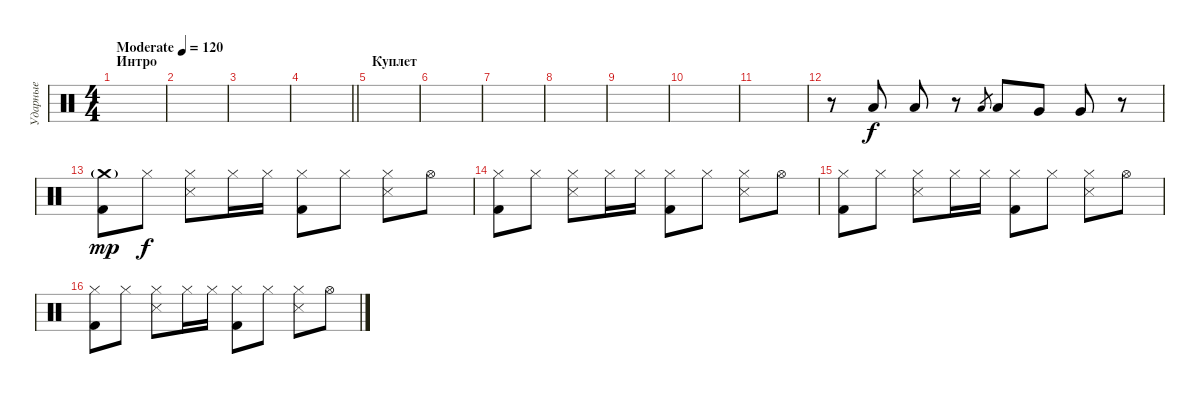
\track ("Ударные" "Ударные") {instrument percussion}
\staff {score}
\articulation defaults
\ts (4 4)
\section ("" "Интро")
\tempo (120 "Moderate")
\clef neutral
\ks c
|
|
|
\barLineRight lightlight
|
\section ("" "Куплет")
|
|
|
|
|
|
|
r.8 "Low Tom (hit)".8 "Low Tom (hit)".8 r.8 "Low Tom (hit)".8{gr} "Low Tom (hit)".8 "Very Low Tom (hit)".8 "Very Low Tom (hit)".8 r.8 |
("Crash medium (hit)"{g} "Kick (hit) 2").8{dy mp} "Hi-Hat (closed)".8{dy f} ("Hi-Hat (closed)" "Snare (side stick) 3").8 "Hi-Hat (closed)".16 "Hi-Hat (closed)".16 ("Hi-Hat (closed)" "Kick (hit) 2").8 "Hi-Hat (closed)".8 ("Hi-Hat (closed)" "Snare (side stick) 3").8 "Hi-Hat (open)".8 |
("Hi-Hat (closed)" "Kick (hit) 2").8 "Hi-Hat (closed)".8 ("Hi-Hat (closed)" "Snare (side stick) 3").8 "Hi-Hat (closed)".16 "Hi-Hat (closed)".16 ("Hi-Hat (closed)" "Kick (hit) 2").8 "Hi-Hat (closed)".8 ("Hi-Hat (closed)" "Snare (side stick) 3").8 "Hi-Hat (open)".8 |
("Hi-Hat (closed)" "Kick (hit) 2").8 "Hi-Hat (closed)".8 ("Hi-Hat (closed)" "Snare (side stick) 3").8 "Hi-Hat (closed)".16 "Hi-Hat (closed)".16 ("Hi-Hat (closed)" "Kick (hit) 2").8 "Hi-Hat (closed)".8 ("Hi-Hat (closed)" "Snare (side stick) 3").8 "Hi-Hat (open)".8 |
("Hi-Hat (closed)" "Kick (hit) 2").8 "Hi-Hat (closed)".8 ("Hi-Hat (closed)" "Snare (side stick) 3").8 "Hi-Hat (closed)".16 "Hi-Hat (closed)".16 ("Hi-Hat (closed)" "Kick (hit) 2").8 "Hi-Hat (closed)".8 ("Hi-Hat (closed)" "Snare (side stick) 3").8 "Hi-Hat (open)".8
